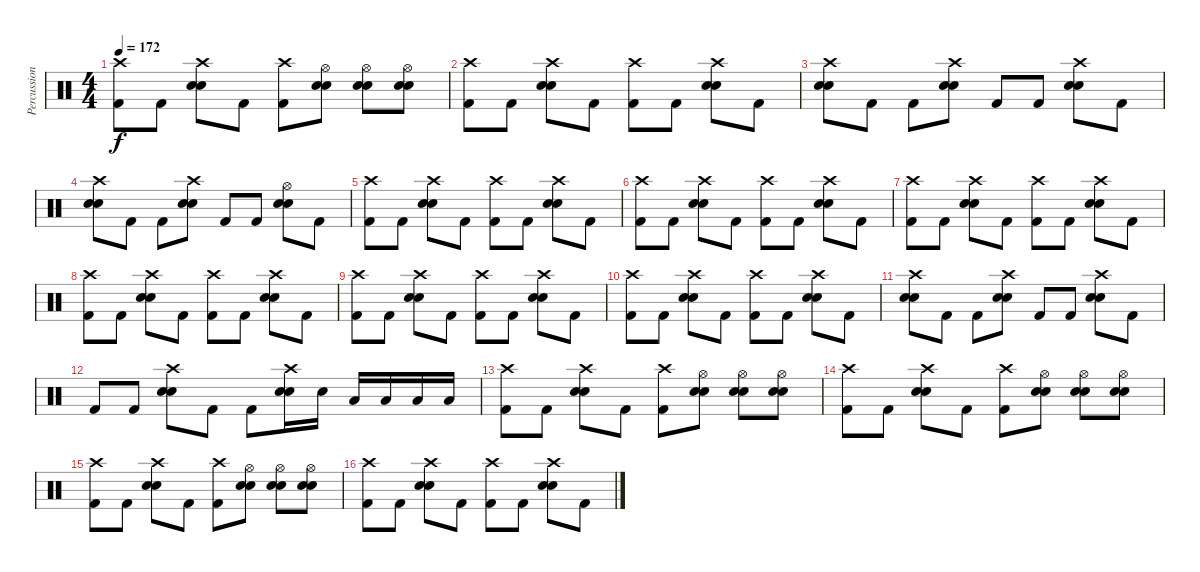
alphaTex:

\track ("Percussion" "Percussion") {instrument percussion}
\staff {score}
\articulation defaults
\ts (4 4)
\tempo 172
\clef neutral
\ks c
("Crash high (hit)" "Kick (hit) 2").8{dy f} "Kick (hit) 2".8 ("Crash high (hit)" "Snare (hit) 2" "Electric Snare (hit)").8 "Kick (hit) 2".8 ("Crash high (hit)" "Kick (hit) 2").8 ("Hi-Hat (open)" "Snare (hit) 2" "Electric Snare (hit)").8 ("Hi-Hat (open)" "Snare (hit) 2" "Electric Snare (hit)").8 ("Hi-Hat (open)" "Snare (hit) 2" "Electric Snare (hit)").8 |
("Crash high (hit)" "Kick (hit) 2").8 "Kick (hit) 2".8 ("Crash high (hit)" "Snare (hit) 2" "Electric Snare (hit)").8 "Kick (hit) 2".8 ("Crash high (hit)" "Kick (hit) 2").8 "Kick (hit) 2".8 ("Crash high (hit)" "Snare (hit) 2" "Electric Snare (hit)").8 "Kick (hit) 2".8 |
("Crash high (hit)" "Snare (hit) 2" "Electric Snare (hit)").8 "Kick (hit) 2".8 "Kick (hit) 2".8 ("Crash high (hit)" "Snare (hit) 2" "Electric Snare (hit)").8 "Kick (hit) 2".8 "Kick (hit) 2".8 ("Crash high (hit)" "Snare (hit) 2" "Electric Snare (hit)").8 "Kick (hit) 2".8 |
("Crash high (hit)" "Snare (hit) 2" "Electric Snare (hit)").8 "Kick (hit) 2".8 "Kick (hit) 2".8 ("Crash high (hit)" "Snare (hit) 2" "Electric Snare (hit)").8 "Kick (hit) 2".8 "Kick (hit) 2".8 ("Hi-Hat (open)" "Snare (hit) 2" "Electric Snare (hit)").8 "Kick (hit) 2".8 |
("Crash high (hit)" "Kick (hit) 2").8 "Kick (hit) 2".8 ("Crash high (hit)" "Snare (hit) 2" "Electric Snare (hit)").8 "Kick (hit) 2".8 ("Crash high (hit)" "Kick (hit) 2").8 "Kick (hit) 2".8 ("Crash high (hit)" "Snare (hit) 2" "Electric Snare (hit)").8 "Kick (hit) 2".8 |
("Crash high (hit)" "Kick (hit) 2").8 "Kick (hit) 2".8 ("Crash high (hit)" "Snare (hit) 2" "Electric Snare (hit)").8 "Kick (hit) 2".8 ("Crash high (hit)" "Kick (hit) 2").8 "Kick (hit) 2".8 ("Crash high (hit)" "Snare (hit) 2" "Electric Snare (hit)").8 "Kick (hit) 2".8 |
("Crash high (hit)" "Kick (hit) 2").8 "Kick (hit) 2".8 ("Crash high (hit)" "Snare (hit) 2" "Electric Snare (hit)").8 "Kick (hit) 2".8 ("Crash high (hit)" "Kick (hit) 2").8 "Kick (hit) 2".8 ("Crash high (hit)" "Snare (hit) 2" "Electric Snare (hit)").8 "Kick (hit) 2".8 |
("Crash high (hit)" "Kick (hit) 2").8 "Kick (hit) 2".8 ("Crash high (hit)" "Snare (hit) 2" "Electric Snare (hit)").8 "Kick (hit) 2".8 ("Crash high (hit)" "Kick (hit) 2").8 "Kick (hit) 2".8 ("Crash high (hit)" "Snare (hit) 2" "Electric Snare (hit)").8 "Kick (hit) 2".8 |
("Crash high (hit)" "Kick (hit) 2").8 "Kick (hit) 2".8 ("Crash high (hit)" "Snare (hit) 2" "Electric Snare (hit)").8 "Kick (hit) 2".8 ("Crash high (hit)" "Kick (hit) 2").8 "Kick (hit) 2".8 ("Crash high (hit)" "Snare (hit) 2" "Electric Snare (hit)").8 "Kick (hit) 2".8 |
("Crash high (hit)" "Kick (hit) 2").8 "Kick (hit) 2".8 ("Crash high (hit)" "Snare (hit) 2" "Electric Snare (hit)").8 "Kick (hit) 2".8 ("Crash high (hit)" "Kick (hit) 2").8 "Kick (hit) 2".8 ("Crash high (hit)" "Snare (hit) 2" "Electric Snare (hit)").8 "Kick (hit) 2".8 |
("Crash high (hit)" "Snare (hit) 2" "Electric Snare (hit)").8 "Kick (hit) 2".8 "Kick (hit) 2".8 ("Crash high (hit)" "Snare (hit) 2" "Electric Snare (hit)").8 "Kick (hit) 2".8 "Kick (hit) 2".8 ("Crash high (hit)" "Snare (hit) 2" "Electric Snare (hit)").8 "Kick (hit) 2".8 |
"Kick (hit) 2".8 "Kick (hit) 2".8 ("Crash high (hit)" "Snare (hit) 2" "Electric Snare (hit)").8 "Kick (hit) 2".8 "Kick (hit) 2".8 ("Crash high (hit)" "Snare (hit) 2" "Electric Snare (hit)").16 "Electric Snare (hit)".16 "Low Tom (hit)".16 "Low Tom (hit)".16 "Low Floor Tom (hit)".16 "Low Floor Tom (hit)".16 |
("Crash high (hit)" "Kick (hit) 2").8 "Kick (hit) 2".8 ("Crash high (hit)" "Snare (hit) 2" "Electric Snare (hit)").8 "Kick (hit) 2".8 ("Crash high (hit)" "Kick (hit) 2").8 ("Hi-Hat (open)" "Snare (hit) 2" "Electric Snare (hit)").8 ("Hi-Hat (open)" "Snare (hit) 2" "Electric Snare (hit)").8 ("Hi-Hat (open)" "Snare (hit) 2" "Electric Snare (hit)").8 |
("Crash high (hit)" "Kick (hit) 2").8 "Kick (hit) 2".8 ("Crash high (hit)" "Snare (hit) 2" "Electric Snare (hit)").8 "Kick (hit) 2".8 ("Crash high (hit)" "Kick (hit) 2").8 ("Hi-Hat (open)" "Snare (hit) 2" "Electric Snare (hit)").8 ("Hi-Hat (open)" "Snare (hit) 2" "Electric Snare (hit)").8 ("Hi-Hat (open)" "Snare (hit) 2" "Electric Snare (hit)").8 |
("Crash high (hit)" "Kick (hit) 2").8 "Kick (hit) 2".8 ("Crash high (hit)" "Snare (hit) 2" "Electric Snare (hit)").8 "Kick (hit) 2".8 ("Crash high (hit)" "Kick (hit) 2").8 ("Hi-Hat (open)" "Snare (hit) 2" "Electric Snare (hit)").8 ("Hi-Hat (open)" "Snare (hit) 2" "Electric Snare (hit)").8 ("Hi-Hat (open)" "Snare (hit) 2" "Electric Snare (hit)").8 |
("Crash high (hit)" "Kick (hit) 2").8 "Kick (hit) 2".8 ("Crash high (hit)" "Snare (hit) 2" "Electric Snare (hit)").8 "Kick (hit) 2".8 ("Crash high (hit)" "Kick (hit) 2").8 "Kick (hit) 2".8 ("Crash high (hit)" "Snare (hit) 2" "Electric Snare (hit)").8 "Kick (hit) 2".8
